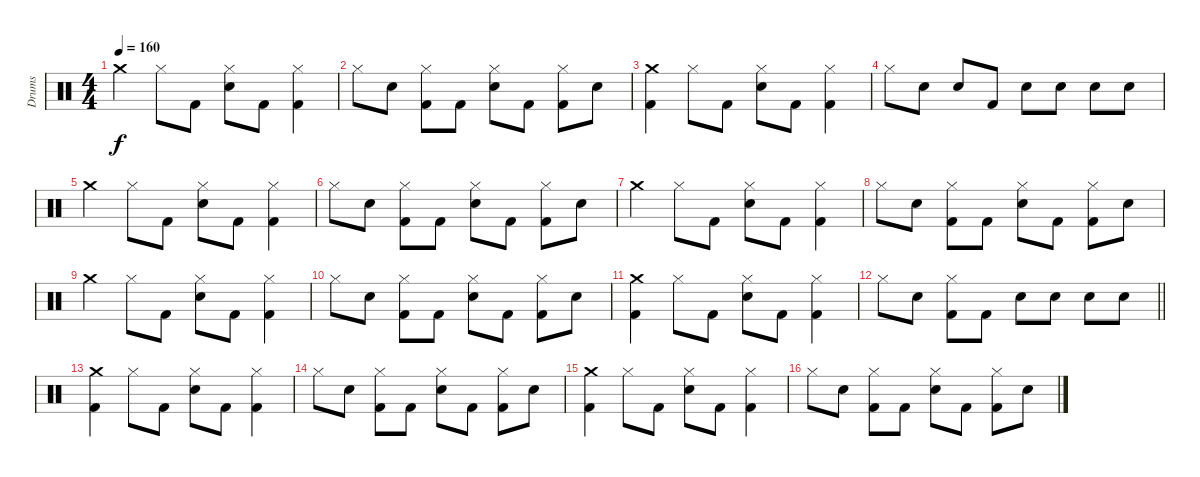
\track ("Drums" "Drums") {instrument percussion}
\staff {score}
\articulation defaults
\ts (4 4)
\tempo 160
\clef neutral
\ks c "Crash medium (hit)".4{dy f} "Hi-Hat (closed)".8 "Kick (hit) 2".8
("Hi-Hat (closed)" "Snare (hit) 2").8 "Kick (hit) 2".8 ("Hi-Hat (closed)" "Kick (hit) 2").4 |
"Hi-Hat (closed)".8 "Snare (hit) 2".8 ("Hi-Hat (closed)" "Kick (hit) 2").8 "Kick (hit) 2".8 ("Hi-Hat (closed)" "Snare (hit) 2").8 "Kick (hit) 2".8 ("Hi-Hat (closed)" "Kick (hit) 2").8 "Snare (hit) 2".8 |
("Crash medium (hit)" "Kick (hit) 2").4 "Hi-Hat (closed)".8 "Kick (hit) 2".8 ("Hi-Hat (closed)" "Snare (hit) 2").8 "Kick (hit) 2".8 ("Hi-Hat (closed)" "Kick (hit) 2").4 |
"Hi-Hat (closed)".8 "Snare (hit) 2".8 "Snare (hit) 2".8 "Kick (hit) 2".8 "Snare (hit) 2".8 "Snare (hit) 2".8 "Snare (hit) 2".8 "Snare (hit) 2".8 |
"Crash medium (hit)".4 "Hi-Hat (closed)".8 "Kick (hit) 2".8 ("Hi-Hat (closed)" "Snare (hit) 2").8 "Kick (hit) 2".8 ("Hi-Hat (closed)" "Kick (hit) 2").4 |
"Hi-Hat (closed)".8 "Snare (hit) 2".8 ("Hi-Hat (closed)" "Kick (hit) 2").8 "Kick (hit) 2".8 ("Hi-Hat (closed)" "Snare (hit) 2").8 "Kick (hit) 2".8 ("Hi-Hat (closed)" "Kick (hit) 2").8 "Snare (hit) 2".8 |
"Crash medium (hit)".4 "Hi-Hat (closed)".8 "Kick (hit) 2".8 ("Hi-Hat (closed)" "Snare (hit) 2").8 "Kick (hit) 2".8 ("Hi-Hat (closed)" "Kick (hit) 2").4 |
"Hi-Hat (closed)".8 "Snare (hit) 2".8 ("Hi-Hat (closed)" "Kick (hit) 2").8 "Kick (hit) 2".8 ("Hi-Hat (closed)" "Snare (hit) 2").8 "Kick (hit) 2".8 ("Hi-Hat (closed)" "Kick (hit) 2").8 "Snare (hit) 2".8 |
"Crash medium (hit)".4 "Hi-Hat (closed)".8 "Kick (hit) 2".8 ("Hi-Hat (closed)" "Snare (hit) 2").8 "Kick (hit) 2".8 ("Hi-Hat (closed)" "Kick (hit) 2").4 |
"Hi-Hat (closed)".8 "Snare (hit) 2".8 ("Hi-Hat (closed)" "Kick (hit) 2").8 "Kick (hit) 2".8 ("Hi-Hat (closed)" "Snare (hit) 2").8 "Kick (hit) 2".8 ("Hi-Hat (closed)" "Kick (hit) 2").8 "Snare (hit) 2".8 |
("Crash medium (hit)" "Kick (hit) 2").4 "Hi-Hat (closed)".8 "Kick (hit) 2".8 ("Hi-Hat (closed)" "Snare (hit) 2").8 "Kick (hit) 2".8 ("Hi-Hat (closed)" "Kick (hit) 2").4 |
\barLineRight lightlight "Hi-Hat (closed)".8 "Snare (hit) 2".8
("Hi-Hat (closed)" "Kick (hit) 2").8 "Kick (hit) 2".8 "Snare (hit) 2".8 "Snare (hit) 2".8 "Snare (hit) 2".8 "Snare (hit) 2".8 |
("Crash medium (hit)" "Kick (hit) 2").4 "Hi-Hat (closed)".8 "Kick (hit) 2".8 ("Hi-Hat (closed)" "Snare (hit) 2").8 "Kick (hit) 2".8 ("Hi-Hat (closed)" "Kick (hit) 2").4 |
"Hi-Hat (closed)".8 "Snare (hit) 2".8 ("Hi-Hat (closed)" "Kick (hit) 2").8 "Kick (hit) 2".8 ("Hi-Hat (closed)" "Snare (hit) 2").8 "Kick (hit) 2".8 ("Hi-Hat (closed)" "Kick (hit) 2").8 "Snare (hit) 2".8 |
("Crash medium (hit)" "Kick (hit) 2").4 "Hi-Hat (closed)".8 "Kick (hit) 2".8 ("Hi-Hat (closed)" "Snare (hit) 2").8 "Kick (hit) 2".8 ("Hi-Hat (closed)" "Kick (hit) 2").4 |
"Hi-Hat (closed)".8 "Snare (hit) 2".8 ("Hi-Hat (closed)" "Kick (hit) 2").8 "Kick (hit) 2".8 ("Hi-Hat (closed)" "Snare (hit) 2").8 "Kick (hit) 2".8 ("Hi-Hat (closed)" "Kick (hit) 2").8 "Snare (hit) 2".8
